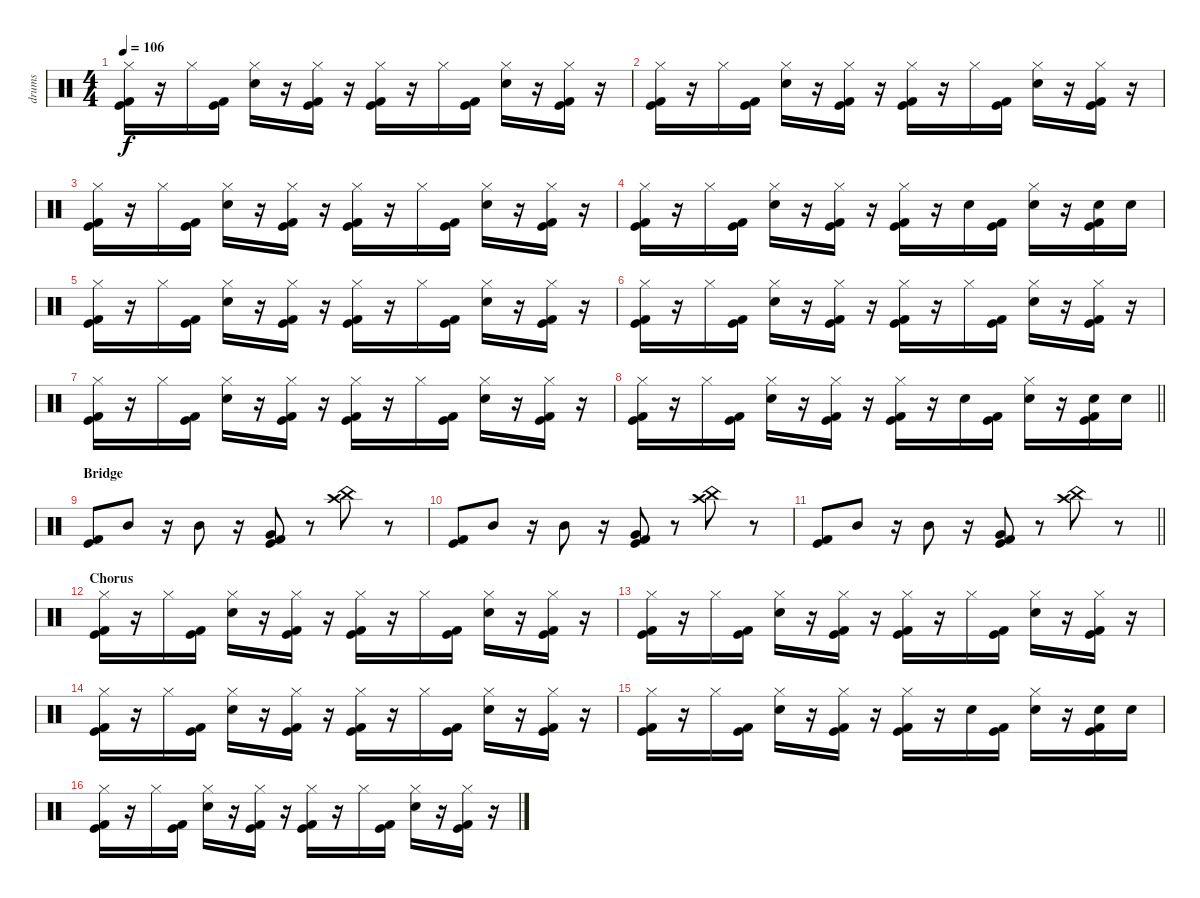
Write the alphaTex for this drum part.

\track ("drums" "drums") {instrument percussion}
\staff {score}
\articulation defaults
\ts (4 4)
\tempo 106
\clef neutral
\ks c
("Hi-Hat (closed)" "Kick (hit) 2" "Kick (hit)").16{dy f} r.16 "Hi-Hat (closed)".16 ("Kick (hit) 2" "Kick (hit)").16 ("Hi-Hat (closed)" "Electric Snare (hit)").16 r.16 ("Hi-Hat (closed)" "Kick (hit) 2" "Kick (hit)").16 r.16 ("Hi-Hat (closed)" "Kick (hit) 2" "Kick (hit)").16 r.16 "Hi-Hat (closed)".16 ("Kick (hit) 2" "Kick (hit)").16 ("Hi-Hat (closed)" "Electric Snare (hit)").16 r.16 ("Hi-Hat (closed)" "Kick (hit) 2" "Kick (hit)").16 r.16 |
("Hi-Hat (closed)" "Kick (hit) 2" "Kick (hit)").16 r.16 "Hi-Hat (closed)".16 ("Kick (hit) 2" "Kick (hit)").16 ("Hi-Hat (closed)" "Electric Snare (hit)").16 r.16 ("Hi-Hat (closed)" "Kick (hit) 2" "Kick (hit)").16 r.16 ("Hi-Hat (closed)" "Kick (hit) 2" "Kick (hit)").16 r.16 "Hi-Hat (closed)".16 ("Kick (hit) 2" "Kick (hit)").16 ("Hi-Hat (closed)" "Electric Snare (hit)").16 r.16 ("Hi-Hat (closed)" "Kick (hit) 2" "Kick (hit)").16 r.16 |
("Hi-Hat (closed)" "Kick (hit) 2" "Kick (hit)").16 r.16 "Hi-Hat (closed)".16 ("Kick (hit) 2" "Kick (hit)").16 ("Hi-Hat (closed)" "Electric Snare (hit)").16 r.16 ("Hi-Hat (closed)" "Kick (hit) 2" "Kick (hit)").16 r.16 ("Hi-Hat (closed)" "Kick (hit) 2" "Kick (hit)").16 r.16 "Hi-Hat (closed)".16 ("Kick (hit) 2" "Kick (hit)").16 ("Hi-Hat (closed)" "Electric Snare (hit)").16 r.16 ("Hi-Hat (closed)" "Kick (hit) 2" "Kick (hit)").16 r.16 |
("Hi-Hat (closed)" "Kick (hit) 2" "Kick (hit)").16 r.16 "Hi-Hat (closed)".16 ("Kick (hit) 2" "Kick (hit)").16 ("Hi-Hat (closed)" "Electric Snare (hit)").16 r.16 ("Hi-Hat (closed)" "Kick (hit) 2" "Kick (hit)").16 r.16 ("Hi-Hat (closed)" "Kick (hit) 2" "Kick (hit)").16 r.16 "Electric Snare (hit)".16 ("Kick (hit) 2" "Kick (hit)").16 ("Hi-Hat (closed)" "Electric Snare (hit)").16 r.16 ("Electric Snare (hit)" "Kick (hit) 2" "Kick (hit)").16 "Electric Snare (hit)".16 |
("Hi-Hat (closed)" "Kick (hit) 2" "Kick (hit)").16 r.16 "Hi-Hat (closed)".16 ("Kick (hit) 2" "Kick (hit)").16 ("Hi-Hat (closed)" "Electric Snare (hit)").16 r.16 ("Hi-Hat (closed)" "Kick (hit) 2" "Kick (hit)").16 r.16 ("Hi-Hat (closed)" "Kick (hit) 2" "Kick (hit)").16 r.16 "Hi-Hat (closed)".16 ("Kick (hit) 2" "Kick (hit)").16 ("Hi-Hat (closed)" "Electric Snare (hit)").16 r.16 ("Hi-Hat (closed)" "Kick (hit) 2" "Kick (hit)").16 r.16 |
("Hi-Hat (closed)" "Kick (hit) 2" "Kick (hit)").16 r.16 "Hi-Hat (closed)".16 ("Kick (hit) 2" "Kick (hit)").16 ("Hi-Hat (closed)" "Electric Snare (hit)").16 r.16 ("Hi-Hat (closed)" "Kick (hit) 2" "Kick (hit)").16 r.16 ("Hi-Hat (closed)" "Kick (hit) 2" "Kick (hit)").16 r.16 "Hi-Hat (closed)".16 ("Kick (hit) 2" "Kick (hit)").16 ("Hi-Hat (closed)" "Electric Snare (hit)").16 r.16 ("Hi-Hat (closed)" "Kick (hit) 2" "Kick (hit)").16 r.16 |
("Hi-Hat (closed)" "Kick (hit) 2" "Kick (hit)").16 r.16 "Hi-Hat (closed)".16 ("Kick (hit) 2" "Kick (hit)").16 ("Hi-Hat (closed)" "Electric Snare (hit)").16 r.16 ("Hi-Hat (closed)" "Kick (hit) 2" "Kick (hit)").16 r.16 ("Hi-Hat (closed)" "Kick (hit) 2" "Kick (hit)").16 r.16 "Hi-Hat (closed)".16 ("Kick (hit) 2" "Kick (hit)").16 ("Hi-Hat (closed)" "Electric Snare (hit)").16 r.16 ("Hi-Hat (closed)" "Kick (hit) 2" "Kick (hit)").16 r.16 |
\barLineRight lightlight
("Hi-Hat (closed)" "Kick (hit) 2" "Kick (hit)").16 r.16 "Hi-Hat (closed)".16 ("Kick (hit) 2" "Kick (hit)").16 ("Hi-Hat (closed)" "Electric Snare (hit)").16 r.16 ("Hi-Hat (closed)" "Kick (hit) 2" "Kick (hit)").16 r.16 ("Hi-Hat (closed)" "Kick (hit) 2" "Kick (hit)").16 r.16 "Electric Snare (hit)".16 ("Kick (hit) 2" "Kick (hit)").16 ("Hi-Hat (closed)" "Electric Snare (hit)").16 r.16 ("Electric Snare (hit)" "Kick (hit) 2" "Kick (hit)").16 "Electric Snare (hit)".16 |
\section ("" "Bridge")
("Kick (hit) 2" "Kick (hit)").8 "Mid Tom (hit)".8 r.16 "Mid Tom (hit)".8 r.16 ("Very Low Tom (hit)" "Kick (hit) 2" "Kick (hit)").8 r.8 ("Crash high (hit)" "China (hit)").8 r.8 |
("Kick (hit) 2" "Kick (hit)").8 "Mid Tom (hit)".8 r.16 "Mid Tom (hit)".8 r.16 ("Very Low Tom (hit)" "Kick (hit) 2" "Kick (hit)").8 r.8 ("Crash high (hit)" "China (hit)").8 r.8 |
\barLineRight lightlight
("Kick (hit) 2" "Kick (hit)").8 "Mid Tom (hit)".8 r.16 "Mid Tom (hit)".8 r.16 ("Very Low Tom (hit)" "Kick (hit) 2" "Kick (hit)").8 r.8 ("Crash high (hit)" "China (hit)").8 r.8 |
\section ("" "Chorus")
("Hi-Hat (closed)" "Kick (hit) 2" "Kick (hit)").16 r.16 "Hi-Hat (closed)".16 ("Kick (hit) 2" "Kick (hit)").16 ("Hi-Hat (closed)" "Electric Snare (hit)").16 r.16 ("Hi-Hat (closed)" "Kick (hit) 2" "Kick (hit)").16 r.16 ("Hi-Hat (closed)" "Kick (hit) 2" "Kick (hit)").16 r.16 "Hi-Hat (closed)".16 ("Kick (hit) 2" "Kick (hit)").16 ("Hi-Hat (closed)" "Electric Snare (hit)").16 r.16 ("Hi-Hat (closed)" "Kick (hit) 2" "Kick (hit)").16 r.16 |
("Hi-Hat (closed)" "Kick (hit) 2" "Kick (hit)").16 r.16 "Hi-Hat (closed)".16 ("Kick (hit) 2" "Kick (hit)").16 ("Hi-Hat (closed)" "Electric Snare (hit)").16 r.16 ("Hi-Hat (closed)" "Kick (hit) 2" "Kick (hit)").16 r.16 ("Hi-Hat (closed)" "Kick (hit) 2" "Kick (hit)").16 r.16 "Hi-Hat (closed)".16 ("Kick (hit) 2" "Kick (hit)").16 ("Hi-Hat (closed)" "Electric Snare (hit)").16 r.16 ("Hi-Hat (closed)" "Kick (hit) 2" "Kick (hit)").16 r.16 |
("Hi-Hat (closed)" "Kick (hit) 2" "Kick (hit)").16 r.16 "Hi-Hat (closed)".16 ("Kick (hit) 2" "Kick (hit)").16 ("Hi-Hat (closed)" "Electric Snare (hit)").16 r.16 ("Hi-Hat (closed)" "Kick (hit) 2" "Kick (hit)").16 r.16 ("Hi-Hat (closed)" "Kick (hit) 2" "Kick (hit)").16 r.16 "Hi-Hat (closed)".16 ("Kick (hit) 2" "Kick (hit)").16 ("Hi-Hat (closed)" "Electric Snare (hit)").16 r.16 ("Hi-Hat (closed)" "Kick (hit) 2" "Kick (hit)").16 r.16 |
("Hi-Hat (closed)" "Kick (hit) 2" "Kick (hit)").16 r.16 "Hi-Hat (closed)".16 ("Kick (hit) 2" "Kick (hit)").16 ("Hi-Hat (closed)" "Electric Snare (hit)").16 r.16 ("Hi-Hat (closed)" "Kick (hit) 2" "Kick (hit)").16 r.16 ("Hi-Hat (closed)" "Kick (hit) 2" "Kick (hit)").16 r.16 "Electric Snare (hit)".16 ("Kick (hit) 2" "Kick (hit)").16 ("Hi-Hat (closed)" "Electric Snare (hit)").16 r.16 ("Electric Snare (hit)" "Kick (hit) 2" "Kick (hit)").16 "Electric Snare (hit)".16 |
("Hi-Hat (closed)" "Kick (hit) 2" "Kick (hit)").16 r.16 "Hi-Hat (closed)".16 ("Kick (hit) 2" "Kick (hit)").16 ("Hi-Hat (closed)" "Electric Snare (hit)").16 r.16 ("Hi-Hat (closed)" "Kick (hit) 2" "Kick (hit)").16 r.16 ("Hi-Hat (closed)" "Kick (hit) 2" "Kick (hit)").16 r.16 "Hi-Hat (closed)".16 ("Kick (hit) 2" "Kick (hit)").16 ("Hi-Hat (closed)" "Electric Snare (hit)").16 r.16 ("Hi-Hat (closed)" "Kick (hit) 2" "Kick (hit)").16 r.16
